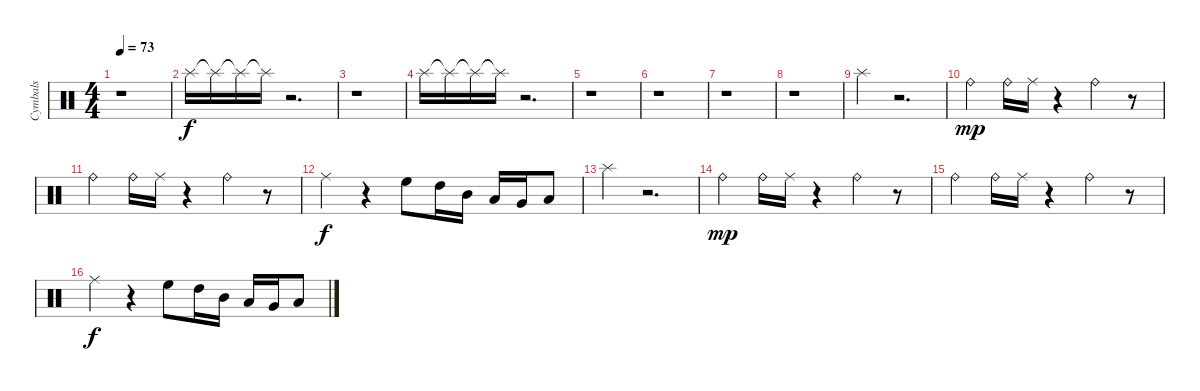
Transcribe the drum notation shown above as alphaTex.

\track ("Cymbals" "Cymbals") {instrument percussion}
\staff {score}
\articulation defaults
\ts (4 4)
\tempo 73
\clef neutral
\ks c
r.1{dy f} |
"Splash (hit)".16 "Splash (hit)"{t}.16 "Splash (hit)"{t}.16 "Splash (hit)"{t}.16 r.2{d} |
r.1 |
"Splash (hit)".16 "Splash (hit)"{t}.16 "Splash (hit)"{t}.16 "Splash (hit)"{t}.16 r.2{d} |
r.1 |
r.1 |
r.1 |
r.1 |
"Splash (hit)".4 r.2{d} |
"Ride (bell)".4{dy mp} "Ride (bell)".16 "Ride (middle)".16 r.4 "Ride (bell)".4 r.8 |
"Ride (bell)".4 "Ride (bell)".16 "Ride (middle)".16 r.4 "Ride (bell)".4 r.8 |
"Ride (middle)".4{dy f} r.4 "High Floor Tom (hit)".8 "High Tom (hit)".16 "Mid Tom (hit)".16 "Low Tom (hit)".16 "Very Low Tom (hit)".16 "Low Floor Tom (hit)".8 |
"Splash (hit)".4 r.2{d} |
"Ride (bell)".4{dy mp volume 7} "Ride (bell)".16 "Ride (middle)".16 r.4 "Ride (bell)".4 r.8 |
"Ride (bell)".4 "Ride (bell)".16 "Ride (middle)".16 r.4 "Ride (bell)".4 r.8 |
"Ride (middle)".4{dy f} r.4 "High Floor Tom (hit)".8 "High Tom (hit)".16 "Mid Tom (hit)".16 "Low Tom (hit)".16 "Very Low Tom (hit)".16 "Low Floor Tom (hit)".8
